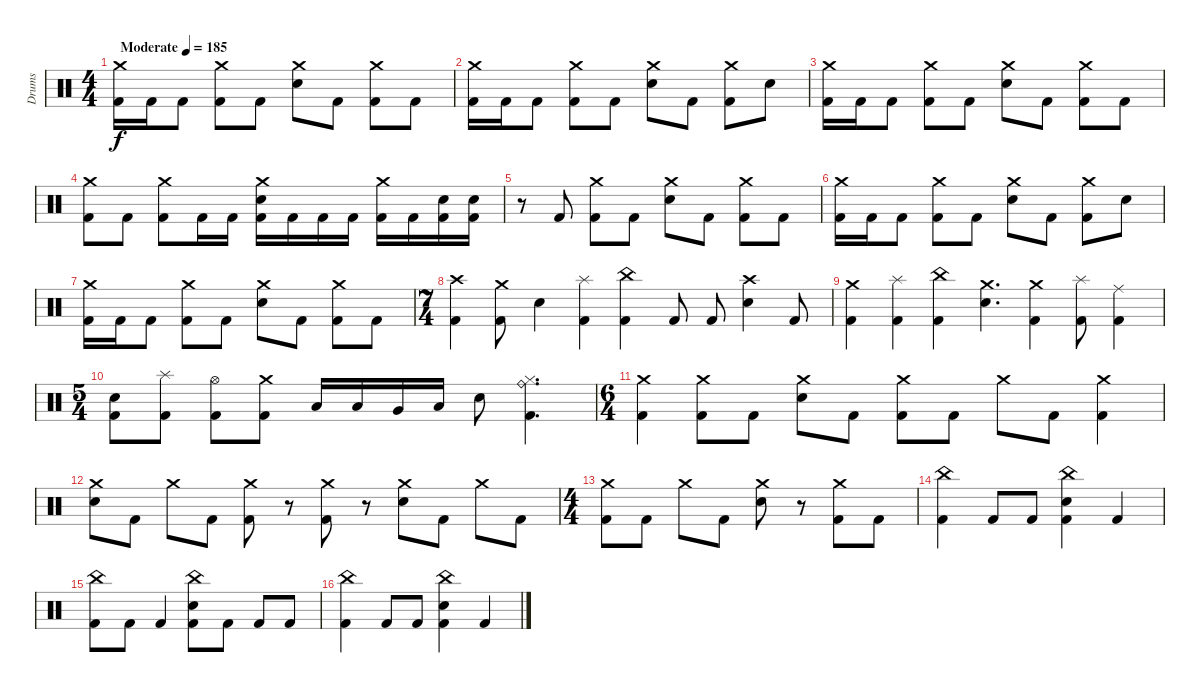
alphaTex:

\track ("Drums" "Drums") {instrument percussion}
\staff {score}
\articulation defaults
\ts (4 4)
\tempo (185 "Moderate")
\clef neutral
\ks c
("Crash medium (hit)" "Kick (hit) 2").16{dy f} "Kick (hit) 2".16 "Kick (hit) 2".8 ("Crash medium (hit)" "Kick (hit) 2").8 "Kick (hit) 2".8 ("Crash medium (hit)" "Electric Snare (hit)").8 "Kick (hit) 2".8 ("Crash medium (hit)" "Kick (hit) 2").8 "Kick (hit) 2".8 |
("Crash medium (hit)" "Kick (hit) 2").16 "Kick (hit) 2".16 "Kick (hit) 2".8 ("Crash medium (hit)" "Kick (hit) 2").8 "Kick (hit) 2".8 ("Crash medium (hit)" "Electric Snare (hit)").8 "Kick (hit) 2".8 ("Crash medium (hit)" "Kick (hit) 2").8 "Electric Snare (hit)".8 |
("Crash medium (hit)" "Kick (hit) 2").16 "Kick (hit) 2".16 "Kick (hit) 2".8 ("Crash medium (hit)" "Kick (hit) 2").8 "Kick (hit) 2".8 ("Crash medium (hit)" "Electric Snare (hit)").8 "Kick (hit) 2".8 ("Crash medium (hit)" "Kick (hit) 2").8 "Kick (hit) 2".8 |
("Crash medium (hit)" "Kick (hit) 2").8 "Kick (hit) 2".8 ("Crash medium (hit)" "Kick (hit) 2").8 "Kick (hit) 2".16 "Kick (hit) 2".16 ("Crash medium (hit)" "Electric Snare (hit)" "Kick (hit) 2").16 "Kick (hit) 2".16 "Kick (hit) 2".16 "Kick (hit) 2".16 ("Crash medium (hit)" "Kick (hit) 2").16 "Kick (hit) 2".16 ("Electric Snare (hit)" "Kick (hit) 2").16 ("Electric Snare (hit)" "Kick (hit) 2").16 |
r.8 "Kick (hit) 2".8 ("Crash medium (hit)" "Kick (hit) 2").8 "Kick (hit) 2".8 ("Crash medium (hit)" "Electric Snare (hit)").8 "Kick (hit) 2".8 ("Crash medium (hit)" "Kick (hit) 2").8 "Kick (hit) 2".8 |
("Crash medium (hit)" "Kick (hit) 2").16 "Kick (hit) 2".16 "Kick (hit) 2".8 ("Crash medium (hit)" "Kick (hit) 2").8 "Kick (hit) 2".8 ("Crash medium (hit)" "Electric Snare (hit)").8 "Kick (hit) 2".8 ("Crash medium (hit)" "Kick (hit) 2").8 "Electric Snare (hit)".8 |
("Crash medium (hit)" "Kick (hit) 2").16 "Kick (hit) 2".16 "Kick (hit) 2".8 ("Crash medium (hit)" "Kick (hit) 2").8 "Kick (hit) 2".8 ("Crash medium (hit)" "Electric Snare (hit)").8 "Kick (hit) 2".8 ("Crash medium (hit)" "Kick (hit) 2").8 "Kick (hit) 2".8 |
\ts (7 4)
("Crash high (hit)" "Kick (hit) 2").4 ("Crash medium (hit)" "Kick (hit) 2").8 "Electric Snare (hit)".4 ("Splash (hit)" "Kick (hit) 2").4 ("China (hit)" "Kick (hit) 2").4 "Kick (hit) 2".8 "Kick (hit) 2".8 ("Crash high (hit)" "Electric Snare (hit)").4 "Kick (hit) 2".8 |
("Crash medium (hit)" "Kick (hit) 2").4 ("Splash (hit)" "Kick (hit) 2").4 ("China (hit)" "Kick (hit) 2").4 ("Crash medium (hit)" "Electric Snare (hit)").4{d} ("Crash medium (hit)" "Kick (hit) 2").4 ("Splash (hit)" "Kick (hit) 2").8 ("Ride (middle)" "Kick (hit) 2").4 |
\ts (5 4)
("Electric Snare (hit)" "Kick (hit) 2").8 ("Splash (hit)" "Kick (hit) 2").8 ("Hi-Hat (open)" "Kick (hit) 2").8 ("Crash medium (hit)" "Kick (hit) 2").8 "Low Tom (hit)".16 "Low Tom (hit)".16 "Very Low Tom (hit)".16 "Low Floor Tom (hit)".16 "Electric Snare (hit)".8 ("Ride (bell)" "Hi-Hat (closed)" "Kick (hit) 2").4{d} |
\ts (6 4)
("Crash medium (hit)" "Kick (hit) 2").4 ("Crash medium (hit)" "Kick (hit) 2").8 "Kick (hit) 2".8 ("Crash medium (hit)" "Electric Snare (hit)").8 "Kick (hit) 2".8 ("Crash medium (hit)" "Kick (hit) 2").8 "Kick (hit) 2".8 "Crash medium (hit)".8 "Kick (hit) 2".8 ("Crash medium (hit)" "Kick (hit) 2").4 |
("Crash medium (hit)" "Electric Snare (hit)").8 "Kick (hit) 2".8 "Crash medium (hit)".8 "Kick (hit) 2".8 ("Crash medium (hit)" "Kick (hit) 2").8 r.8 ("Crash medium (hit)" "Kick (hit) 2").8 r.8 ("Crash medium (hit)" "Electric Snare (hit)").8 "Kick (hit) 2".8 "Crash medium (hit)".8 "Kick (hit) 2".8 |
\ts (4 4)
("Crash medium (hit)" "Kick (hit) 2").8 "Kick (hit) 2".8 "Crash medium (hit)".8 "Kick (hit) 2".8 ("Crash medium (hit)" "Electric Snare (hit)").8 r.8 ("Crash medium (hit)" "Kick (hit) 2").8 "Kick (hit) 2".8 |
("China (hit)" "Kick (hit) 2").4 "Kick (hit) 2".8 "Kick (hit) 2".8 ("China (hit)" "Electric Snare (hit)" "Kick (hit) 2").4 "Kick (hit) 2".4 |
("China (hit)" "Kick (hit) 2").8 "Kick (hit) 2".8 "Kick (hit) 2".4 ("China (hit)" "Electric Snare (hit)" "Kick (hit) 2").8 "Kick (hit) 2".8 "Kick (hit) 2".8 "Kick (hit) 2".8 |
("China (hit)" "Kick (hit) 2").4 "Kick (hit) 2".8 "Kick (hit) 2".8 ("China (hit)" "Electric Snare (hit)" "Kick (hit) 2").4 "Kick (hit) 2".4
